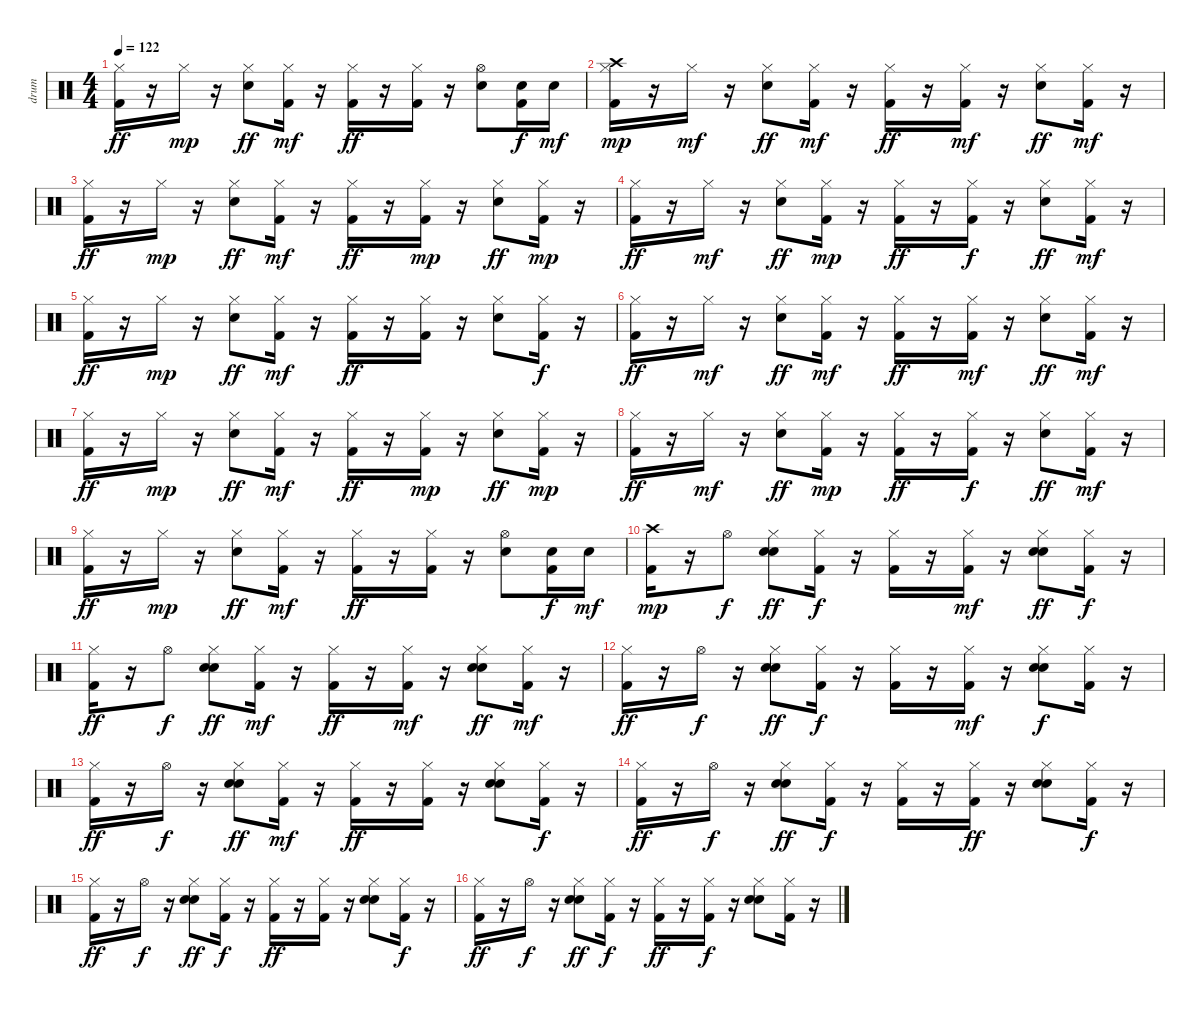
\track ("drum" "drum") {instrument percussion}
\staff {score}
\articulation defaults
\ts (4 4)
\tempo 122
\clef neutral
\ks c
("Kick (hit) 2" "Hi-Hat (closed)").16{dy ff} r.16 "Hi-Hat (closed)".16{dy mp} r.16 ("Electric Snare (hit)" "Hi-Hat (closed)").8{dy ff} ("Kick (hit) 2" "Hi-Hat (closed)").16{dy mf} r.16 ("Kick (hit) 2" "Hi-Hat (closed)").16{dy ff} r.16 ("Kick (hit) 2" "Hi-Hat (closed)").16 r.16 ("Electric Snare (hit)" "Hi-Hat (open)").8 ("Electric Snare (hit)" "Kick (hit) 2").16{dy f} "Electric Snare (hit)".16{dy mf} |
("Kick (hit) 2" "Hi-Hat (closed)" "Crash high (hit)").16{dy mp} r.16 "Hi-Hat (closed)".16{dy mf} r.16 ("Electric Snare (hit)" "Hi-Hat (closed)").8{dy ff} ("Kick (hit) 2" "Hi-Hat (closed)").16{dy mf} r.16 ("Kick (hit) 2" "Hi-Hat (closed)").16{dy ff} r.16 ("Kick (hit) 2" "Hi-Hat (closed)").16{dy mf} r.16 ("Electric Snare (hit)" "Hi-Hat (closed)").8{dy ff} ("Kick (hit) 2" "Hi-Hat (closed)").16{dy mf} r.16 |
("Kick (hit) 2" "Hi-Hat (closed)").16{dy ff} r.16 "Hi-Hat (closed)".16{dy mp} r.16 ("Electric Snare (hit)" "Hi-Hat (closed)").8{dy ff} ("Kick (hit) 2" "Hi-Hat (closed)").16{dy mf} r.16 ("Kick (hit) 2" "Hi-Hat (closed)").16{dy ff} r.16 ("Kick (hit) 2" "Hi-Hat (closed)").16{dy mp} r.16 ("Electric Snare (hit)" "Hi-Hat (closed)").8{dy ff} ("Kick (hit) 2" "Hi-Hat (closed)").16{dy mp} r.16 |
("Kick (hit) 2" "Hi-Hat (closed)").16{dy ff} r.16 "Hi-Hat (closed)".16{dy mf} r.16 ("Electric Snare (hit)" "Hi-Hat (closed)").8{dy ff} ("Kick (hit) 2" "Hi-Hat (closed)").16{dy mp} r.16 ("Kick (hit) 2" "Hi-Hat (closed)").16{dy ff} r.16 ("Kick (hit) 2" "Hi-Hat (closed)").16{dy f} r.16 ("Electric Snare (hit)" "Hi-Hat (closed)").8{dy ff} ("Kick (hit) 2" "Hi-Hat (closed)").16{dy mf} r.16 |
("Kick (hit) 2" "Hi-Hat (closed)").16{dy ff} r.16 "Hi-Hat (closed)".16{dy mp} r.16 ("Electric Snare (hit)" "Hi-Hat (closed)").8{dy ff} ("Kick (hit) 2" "Hi-Hat (closed)").16{dy mf} r.16 ("Kick (hit) 2" "Hi-Hat (closed)").16{dy ff} r.16 ("Kick (hit) 2" "Hi-Hat (closed)").16 r.16 ("Electric Snare (hit)" "Hi-Hat (closed)").8 ("Kick (hit) 2" "Hi-Hat (closed)").16{dy f} r.16 |
("Kick (hit) 2" "Hi-Hat (closed)").16{dy ff} r.16 "Hi-Hat (closed)".16{dy mf} r.16 ("Electric Snare (hit)" "Hi-Hat (closed)").8{dy ff} ("Kick (hit) 2" "Hi-Hat (closed)").16{dy mf} r.16 ("Kick (hit) 2" "Hi-Hat (closed)").16{dy ff} r.16 ("Kick (hit) 2" "Hi-Hat (closed)").16{dy mf} r.16 ("Electric Snare (hit)" "Hi-Hat (closed)").8{dy ff} ("Kick (hit) 2" "Hi-Hat (closed)").16{dy mf} r.16 |
("Kick (hit) 2" "Hi-Hat (closed)").16{dy ff} r.16 "Hi-Hat (closed)".16{dy mp} r.16 ("Electric Snare (hit)" "Hi-Hat (closed)").8{dy ff} ("Kick (hit) 2" "Hi-Hat (closed)").16{dy mf} r.16 ("Kick (hit) 2" "Hi-Hat (closed)").16{dy ff} r.16 ("Kick (hit) 2" "Hi-Hat (closed)").16{dy mp} r.16 ("Electric Snare (hit)" "Hi-Hat (closed)").8{dy ff} ("Kick (hit) 2" "Hi-Hat (closed)").16{dy mp} r.16 |
("Kick (hit) 2" "Hi-Hat (closed)").16{dy ff} r.16 "Hi-Hat (closed)".16{dy mf} r.16 ("Electric Snare (hit)" "Hi-Hat (closed)").8{dy ff} ("Kick (hit) 2" "Hi-Hat (closed)").16{dy mp} r.16 ("Kick (hit) 2" "Hi-Hat (closed)").16{dy ff} r.16 ("Kick (hit) 2" "Hi-Hat (closed)").16{dy f} r.16 ("Electric Snare (hit)" "Hi-Hat (closed)").8{dy ff} ("Kick (hit) 2" "Hi-Hat (closed)").16{dy mf} r.16 |
("Kick (hit) 2" "Hi-Hat (closed)").16{dy ff} r.16 "Hi-Hat (closed)".16{dy mp} r.16 ("Electric Snare (hit)" "Hi-Hat (closed)").8{dy ff} ("Kick (hit) 2" "Hi-Hat (closed)").16{dy mf} r.16 ("Kick (hit) 2" "Hi-Hat (closed)").16{dy ff} r.16 ("Kick (hit) 2" "Hi-Hat (closed)").16 r.16 ("Electric Snare (hit)" "Hi-Hat (open)").8 ("Electric Snare (hit)" "Kick (hit) 2").16{dy f} "Electric Snare (hit)".16{dy mf} |
("Kick (hit) 2" "Crash high (hit)").16{dy mp} r.16 "Hi-Hat (open)".8{dy f} ("Electric Snare (hit)" "Hi-Hat (closed)" "Hand Clap (hit)").8{dy ff} ("Kick (hit) 2" "Hi-Hat (closed)").16{dy f} r.16 ("Kick (hit) 2" "Hi-Hat (closed)").16 r.16 ("Kick (hit) 2" "Hi-Hat (closed)").16{dy mf} r.16 ("Electric Snare (hit)" "Hi-Hat (closed)" "Hand Clap (hit)").8{dy ff} ("Kick (hit) 2" "Hi-Hat (closed)").16{dy f} r.16 |
("Kick (hit) 2" "Hi-Hat (closed)").16{dy ff} r.16 "Hi-Hat (open)".8{dy f} ("Electric Snare (hit)" "Hi-Hat (closed)" "Hand Clap (hit)").8{dy ff} ("Kick (hit) 2" "Hi-Hat (closed)").16{dy mf} r.16 ("Kick (hit) 2" "Hi-Hat (closed)").16{dy ff} r.16 ("Kick (hit) 2" "Hi-Hat (closed)").16{dy mf} r.16 ("Electric Snare (hit)" "Hi-Hat (closed)" "Hand Clap (hit)").8{dy ff} ("Kick (hit) 2" "Hi-Hat (closed)").16{dy mf} r.16 |
("Kick (hit) 2" "Hi-Hat (closed)").16{dy ff} r.16 "Hi-Hat (open)".16{dy f} r.16 ("Electric Snare (hit)" "Hi-Hat (closed)" "Hand Clap (hit)").8{dy ff} ("Kick (hit) 2" "Hi-Hat (closed)").16{dy f} r.16 ("Kick (hit) 2" "Hi-Hat (closed)").16 r.16 ("Kick (hit) 2" "Hi-Hat (closed)").16{dy mf} r.16 ("Electric Snare (hit)" "Hi-Hat (closed)" "Hand Clap (hit)").8{dy f} ("Kick (hit) 2" "Hi-Hat (closed)").16 r.16 |
("Kick (hit) 2" "Hi-Hat (closed)").16{dy ff} r.16 "Hi-Hat (open)".16{dy f} r.16 ("Electric Snare (hit)" "Hi-Hat (closed)" "Hand Clap (hit)").8{dy ff} ("Kick (hit) 2" "Hi-Hat (closed)").16{dy mf} r.16 ("Kick (hit) 2" "Hi-Hat (closed)").16{dy ff} r.16 ("Kick (hit) 2" "Hi-Hat (closed)").16 r.16 ("Electric Snare (hit)" "Hi-Hat (closed)" "Hand Clap (hit)").8 ("Kick (hit) 2" "Hi-Hat (closed)").16{dy f} r.16 |
("Kick (hit) 2" "Hi-Hat (closed)").16{dy ff} r.16 "Hi-Hat (open)".16{dy f} r.16 ("Electric Snare (hit)" "Hi-Hat (closed)" "Hand Clap (hit)").8{dy ff} ("Kick (hit) 2" "Hi-Hat (closed)").16{dy f} r.16 ("Kick (hit) 2" "Hi-Hat (closed)").16 r.16 ("Kick (hit) 2" "Hi-Hat (closed)").16{dy ff} r.16 ("Electric Snare (hit)" "Hi-Hat (closed)" "Hand Clap (hit)").8 ("Kick (hit) 2" "Hi-Hat (closed)").16{dy f} r.16 |
("Kick (hit) 2" "Hi-Hat (closed)").16{dy ff} r.16 "Hi-Hat (open)".16{dy f} r.16 ("Electric Snare (hit)" "Hi-Hat (closed)" "Hand Clap (hit)").8{dy ff} ("Kick (hit) 2" "Hi-Hat (closed)").16{dy f} r.16 ("Kick (hit) 2" "Hi-Hat (closed)").16{dy ff} r.16 ("Kick (hit) 2" "Hi-Hat (closed)").16 r.16 ("Electric Snare (hit)" "Hi-Hat (closed)" "Hand Clap (hit)").8 ("Kick (hit) 2" "Hi-Hat (closed)").16{dy f} r.16 |
("Kick (hit) 2" "Hi-Hat (closed)").16{dy ff} r.16 "Hi-Hat (open)".16{dy f} r.16 ("Electric Snare (hit)" "Hi-Hat (closed)" "Hand Clap (hit)").8{dy ff} ("Kick (hit) 2" "Hi-Hat (closed)").16{dy f} r.16 ("Kick (hit) 2" "Hi-Hat (closed)").16{dy ff} r.16 ("Kick (hit) 2" "Hi-Hat (closed)").16{dy f} r.16 ("Electric Snare (hit)" "Hi-Hat (closed)" "Hand Clap (hit)").8 ("Kick (hit) 2" "Hi-Hat (closed)").16 r.16
